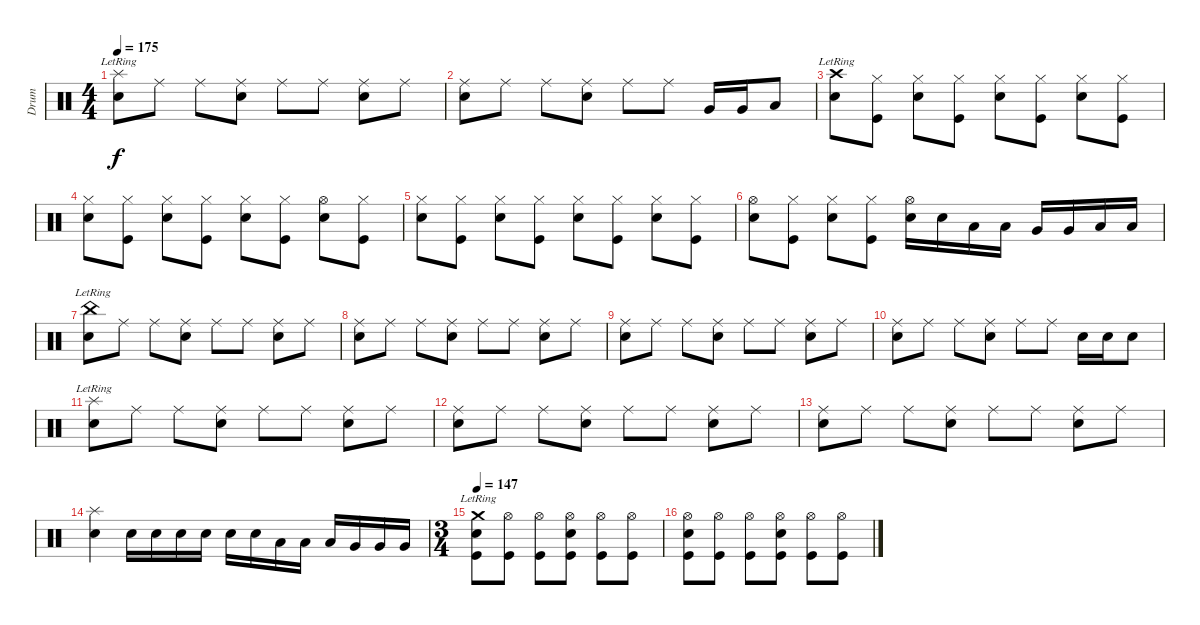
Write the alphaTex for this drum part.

\track ("Drum" "Drum") {instrument percussion}
\staff {score}
\articulation defaults
\ts (4 4)
\tempo 175
\clef neutral
\ks c
("Splash (hit)"{lr} "Snare (hit) 2").8{dy f} "Ride (middle)".8 "Ride (middle)".8 ("Ride (middle)" "Snare (hit) 2").8 "Ride (middle)".8 "Ride (middle)".8 ("Ride (middle)" "Snare (hit) 2").8 "Ride (middle)".8 |
("Ride (middle)" "Snare (hit) 2").8 "Ride (middle)".8 "Ride (middle)".8 ("Ride (middle)" "Snare (hit) 2").8 "Ride (middle)".8 "Ride (middle)".8 "Very Low Tom (hit)".16 "Very Low Tom (hit)".16 "Low Floor Tom (hit)".8 |
("Crash high (hit)"{lr} "Snare (hit) 2").8 ("Hi-Hat (closed)" "Kick (hit)").8 ("Hi-Hat (closed)" "Snare (hit) 2").8 ("Hi-Hat (closed)" "Kick (hit)").8 ("Hi-Hat (closed)" "Snare (hit) 2").8 ("Hi-Hat (closed)" "Kick (hit)").8 ("Hi-Hat (closed)" "Snare (hit) 2").8 ("Hi-Hat (closed)" "Kick (hit)").8 |
("Hi-Hat (closed)" "Snare (hit) 2").8 ("Hi-Hat (closed)" "Kick (hit)").8 ("Hi-Hat (closed)" "Snare (hit) 2").8 ("Hi-Hat (closed)" "Kick (hit)").8 ("Hi-Hat (closed)" "Snare (hit) 2").8 ("Hi-Hat (closed)" "Kick (hit)").8 ("Hi-Hat (open)" "Snare (hit) 2").8 ("Hi-Hat (closed)" "Kick (hit)").8 |
("Hi-Hat (closed)" "Snare (hit) 2").8 ("Hi-Hat (closed)" "Kick (hit)").8 ("Hi-Hat (closed)" "Snare (hit) 2").8 ("Hi-Hat (closed)" "Kick (hit)").8 ("Hi-Hat (closed)" "Snare (hit) 2").8 ("Hi-Hat (closed)" "Kick (hit)").8 ("Hi-Hat (closed)" "Snare (hit) 2").8 ("Hi-Hat (closed)" "Kick (hit)").8 |
("Hi-Hat (open)" "Snare (hit) 2").8 ("Hi-Hat (closed)" "Kick (hit)").8 ("Hi-Hat (closed)" "Snare (hit) 2").8 ("Hi-Hat (closed)" "Kick (hit)").8 ("Hi-Hat (open)" "Snare (hit) 2").16 "Snare (hit) 2".16 "Low Tom (hit)".16 "Low Tom (hit)".16 "Very Low Tom (hit)".16 "Very Low Tom (hit)".16 "Low Floor Tom (hit)".16 "Low Floor Tom (hit)".16 |
("China (hit)"{lr} "Snare (hit) 2").8 "Ride (middle)".8 "Ride (middle)".8 ("Ride (middle)" "Snare (hit) 2").8 "Ride (middle)".8 "Ride (middle)".8 ("Ride (middle)" "Snare (hit) 2").8 "Ride (middle)".8 |
("Ride (middle)" "Snare (hit) 2").8 "Ride (middle)".8 "Ride (middle)".8 ("Ride (middle)" "Snare (hit) 2").8 "Ride (middle)".8 "Ride (middle)".8 ("Ride (middle)" "Snare (hit) 2").8 "Ride (middle)".8 |
("Ride (middle)" "Snare (hit) 2").8 "Ride (middle)".8 "Ride (middle)".8 ("Ride (middle)" "Snare (hit) 2").8 "Ride (middle)".8 "Ride (middle)".8 ("Ride (middle)" "Snare (hit) 2").8 "Ride (middle)".8 |
("Ride (middle)" "Snare (hit) 2").8 "Ride (middle)".8 "Ride (middle)".8 ("Ride (middle)" "Snare (hit) 2").8 "Ride (middle)".8 "Ride (middle)".8 "Snare (hit) 2".16 "Snare (hit) 2".16 "Snare (hit) 2".8 |
("Splash (hit)"{lr} "Snare (hit) 2").8 "Ride (middle)".8 "Ride (middle)".8 ("Ride (middle)" "Snare (hit) 2").8 "Ride (middle)".8 "Ride (middle)".8 ("Ride (middle)" "Snare (hit) 2").8 "Ride (middle)".8 |
("Ride (middle)" "Snare (hit) 2").8 "Ride (middle)".8 "Ride (middle)".8 ("Ride (middle)" "Snare (hit) 2").8 "Ride (middle)".8 "Ride (middle)".8 ("Ride (middle)" "Snare (hit) 2").8 "Ride (middle)".8 |
("Ride (middle)" "Snare (hit) 2").8 "Ride (middle)".8 "Ride (middle)".8 ("Ride (middle)" "Snare (hit) 2").8 "Ride (middle)".8 "Ride (middle)".8 ("Ride (middle)" "Snare (hit) 2").8 "Ride (middle)".8 |
("Splash (hit)" "Snare (hit) 2").4 "Snare (hit) 2".16 "Snare (hit) 2".16 "Snare (hit) 2".16 "Snare (hit) 2".16 "Snare (hit) 2".16 "Snare (hit) 2".16 "Low Tom (hit)".16 "Low Tom (hit)".16 "Low Tom (hit)".16 "Very Low Tom (hit)".16 "Very Low Tom (hit)".16 "Very Low Tom (hit)".16 |
\ts (3 4)
\tempo 147
("Crash medium (hit)"{lr} "Snare (hit) 2" "Kick (hit)").8 ("Hi-Hat (open)" "Kick (hit)").8 ("Hi-Hat (open)" "Kick (hit)").8 ("Hi-Hat (open)" "Snare (hit) 2" "Kick (hit)").8 ("Hi-Hat (open)" "Kick (hit)").8 ("Hi-Hat (open)" "Kick (hit)").8 |
("Hi-Hat (open)" "Snare (hit) 2" "Kick (hit)").8 ("Hi-Hat (open)" "Kick (hit)").8 ("Hi-Hat (open)" "Kick (hit)").8 ("Hi-Hat (open)" "Snare (hit) 2" "Kick (hit)").8 ("Hi-Hat (open)" "Kick (hit)").8 ("Hi-Hat (open)" "Kick (hit)").8
